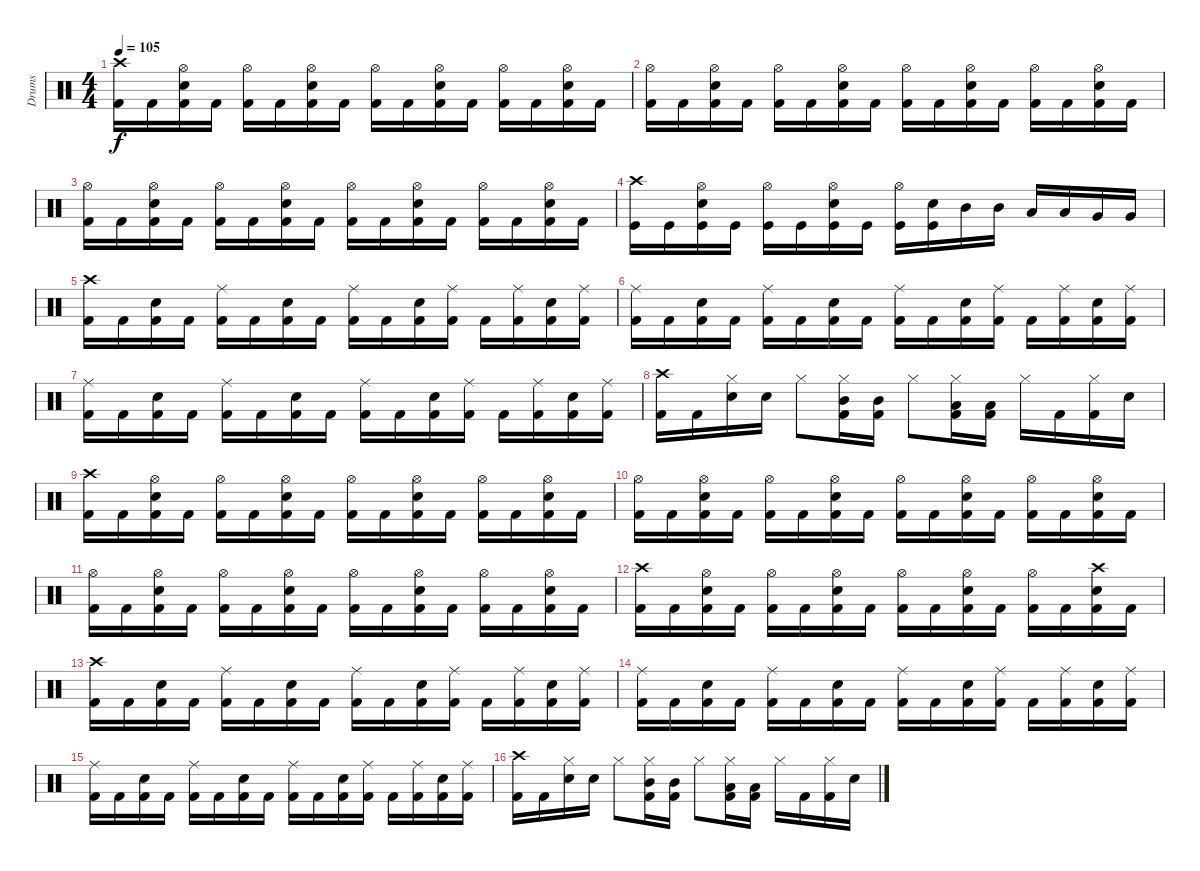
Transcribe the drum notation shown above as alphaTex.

\track ("Drums" "Drums") {instrument percussion}
\staff {score}
\articulation defaults
\ts (4 4)
\tempo 105
\clef neutral
\ks c
("Crash high (hit)" "Kick (hit) 2").16{dy f} "Kick (hit) 2".16 ("Hi-Hat (open)" "Electric Snare (hit)" "Kick (hit) 2").16 "Kick (hit) 2".16 ("Hi-Hat (open)" "Kick (hit) 2").16 "Kick (hit) 2".16 ("Hi-Hat (open)" "Electric Snare (hit)" "Kick (hit) 2").16 "Kick (hit) 2".16 ("Hi-Hat (open)" "Kick (hit) 2").16 "Kick (hit) 2".16 ("Hi-Hat (open)" "Electric Snare (hit)" "Kick (hit) 2").16 "Kick (hit) 2".16 ("Hi-Hat (open)" "Kick (hit) 2").16 "Kick (hit) 2".16 ("Hi-Hat (open)" "Electric Snare (hit)" "Kick (hit) 2").16 "Kick (hit) 2".16 |
("Hi-Hat (open)" "Kick (hit) 2").16 "Kick (hit) 2".16 ("Hi-Hat (open)" "Electric Snare (hit)" "Kick (hit) 2").16 "Kick (hit) 2".16 ("Hi-Hat (open)" "Kick (hit) 2").16 "Kick (hit) 2".16 ("Hi-Hat (open)" "Electric Snare (hit)" "Kick (hit) 2").16 "Kick (hit) 2".16 ("Hi-Hat (open)" "Kick (hit) 2").16 "Kick (hit) 2".16 ("Hi-Hat (open)" "Electric Snare (hit)" "Kick (hit) 2").16 "Kick (hit) 2".16 ("Hi-Hat (open)" "Kick (hit) 2").16 "Kick (hit) 2".16 ("Hi-Hat (open)" "Electric Snare (hit)" "Kick (hit) 2").16 "Kick (hit) 2".16 |
("Hi-Hat (open)" "Kick (hit) 2").16 "Kick (hit) 2".16 ("Hi-Hat (open)" "Electric Snare (hit)" "Kick (hit) 2").16 "Kick (hit) 2".16 ("Hi-Hat (open)" "Kick (hit) 2").16 "Kick (hit) 2".16 ("Hi-Hat (open)" "Electric Snare (hit)" "Kick (hit) 2").16 "Kick (hit) 2".16 ("Hi-Hat (open)" "Kick (hit) 2").16 "Kick (hit) 2".16 ("Hi-Hat (open)" "Electric Snare (hit)" "Kick (hit) 2").16 "Kick (hit) 2".16 ("Hi-Hat (open)" "Kick (hit) 2").16 "Kick (hit) 2".16 ("Hi-Hat (open)" "Electric Snare (hit)" "Kick (hit) 2").16 "Kick (hit) 2".16 |
("Crash high (hit)" "Kick (hit)").16 "Kick (hit)".16 ("Hi-Hat (open)" "Electric Snare (hit)" "Kick (hit)").16 "Kick (hit)".16 ("Hi-Hat (open)" "Kick (hit)").16 "Kick (hit)".16 ("Hi-Hat (open)" "Electric Snare (hit)" "Kick (hit)").16 "Kick (hit)".16 ("Hi-Hat (open)" "Kick (hit)").16 ("Electric Snare (hit)" "Kick (hit)").16 "Mid Tom (hit)".16 "Mid Tom (hit)".16 "Low Tom (hit)".16 "Low Tom (hit)".16 "Very Low Tom (hit)".16 "Very Low Tom (hit)".16 |
("Crash high (hit)" "Kick (hit) 2").16 "Kick (hit) 2".16 ("Electric Snare (hit)" "Kick (hit) 2").16 "Kick (hit) 2".16 ("Ride (middle)" "Kick (hit) 2").16 "Kick (hit) 2".16 ("Electric Snare (hit)" "Kick (hit) 2").16 "Kick (hit) 2".16 ("Ride (middle)" "Kick (hit) 2").16 "Kick (hit) 2".16 ("Electric Snare (hit)" "Kick (hit) 2").16 ("Ride (middle)" "Kick (hit) 2").16 "Kick (hit) 2".16 ("Ride (middle)" "Kick (hit) 2").16 ("Electric Snare (hit)" "Kick (hit) 2").16 ("Ride (middle)" "Kick (hit) 2").16 |
("Ride (middle)" "Kick (hit) 2").16 "Kick (hit) 2".16 ("Electric Snare (hit)" "Kick (hit) 2").16 "Kick (hit) 2".16 ("Ride (middle)" "Kick (hit) 2").16 "Kick (hit) 2".16 ("Electric Snare (hit)" "Kick (hit) 2").16 "Kick (hit) 2".16 ("Ride (middle)" "Kick (hit) 2").16 "Kick (hit) 2".16 ("Electric Snare (hit)" "Kick (hit) 2").16 ("Ride (middle)" "Kick (hit) 2").16 "Kick (hit) 2".16 ("Ride (middle)" "Kick (hit) 2").16 ("Electric Snare (hit)" "Kick (hit) 2").16 ("Ride (middle)" "Kick (hit) 2").16 |
("Ride (middle)" "Kick (hit) 2").16 "Kick (hit) 2".16 ("Electric Snare (hit)" "Kick (hit) 2").16 "Kick (hit) 2".16 ("Ride (middle)" "Kick (hit) 2").16 "Kick (hit) 2".16 ("Electric Snare (hit)" "Kick (hit) 2").16 "Kick (hit) 2".16 ("Ride (middle)" "Kick (hit) 2").16 "Kick (hit) 2".16 ("Electric Snare (hit)" "Kick (hit) 2").16 ("Ride (middle)" "Kick (hit) 2").16 "Kick (hit) 2".16 ("Ride (middle)" "Kick (hit) 2").16 ("Electric Snare (hit)" "Kick (hit) 2").16 ("Ride (middle)" "Kick (hit) 2").16 |
("Crash high (hit)" "Kick (hit) 2").16 "Kick (hit) 2".16 ("Hi-Hat (closed)" "Electric Snare (hit)").16 "Electric Snare (hit)".16 "Hi-Hat (closed)".8 ("Hi-Hat (closed)" "Mid Tom (hit)" "Kick (hit) 2").16 ("Mid Tom (hit)" "Kick (hit) 2").16 "Hi-Hat (closed)".8 ("Hi-Hat (closed)" "Low Tom (hit)" "Kick (hit) 2").16 ("Low Tom (hit)" "Kick (hit) 2").16 "Hi-Hat (closed)".16 "Kick (hit) 2".16 ("Hi-Hat (closed)" "Kick (hit) 2").16 "Electric Snare (hit)".16 |
("Crash high (hit)" "Kick (hit) 2").16 "Kick (hit) 2".16 ("Hi-Hat (open)" "Electric Snare (hit)" "Kick (hit) 2").16 "Kick (hit) 2".16 ("Hi-Hat (open)" "Kick (hit) 2").16 "Kick (hit) 2".16 ("Hi-Hat (open)" "Electric Snare (hit)" "Kick (hit) 2").16 "Kick (hit) 2".16 ("Hi-Hat (open)" "Kick (hit) 2").16 "Kick (hit) 2".16 ("Hi-Hat (open)" "Electric Snare (hit)" "Kick (hit) 2").16 "Kick (hit) 2".16 ("Hi-Hat (open)" "Kick (hit) 2").16 "Kick (hit) 2".16 ("Hi-Hat (open)" "Electric Snare (hit)" "Kick (hit) 2").16 "Kick (hit) 2".16 |
("Hi-Hat (open)" "Kick (hit) 2").16 "Kick (hit) 2".16 ("Hi-Hat (open)" "Electric Snare (hit)" "Kick (hit) 2").16 "Kick (hit) 2".16 ("Hi-Hat (open)" "Kick (hit) 2").16 "Kick (hit) 2".16 ("Hi-Hat (open)" "Electric Snare (hit)" "Kick (hit) 2").16 "Kick (hit) 2".16 ("Hi-Hat (open)" "Kick (hit) 2").16 "Kick (hit) 2".16 ("Hi-Hat (open)" "Electric Snare (hit)" "Kick (hit) 2").16 "Kick (hit) 2".16 ("Hi-Hat (open)" "Kick (hit) 2").16 "Kick (hit) 2".16 ("Hi-Hat (open)" "Electric Snare (hit)" "Kick (hit) 2").16 "Kick (hit) 2".16 |
("Hi-Hat (open)" "Kick (hit) 2").16 "Kick (hit) 2".16 ("Hi-Hat (open)" "Electric Snare (hit)" "Kick (hit) 2").16 "Kick (hit) 2".16 ("Hi-Hat (open)" "Kick (hit) 2").16 "Kick (hit) 2".16 ("Hi-Hat (open)" "Electric Snare (hit)" "Kick (hit) 2").16 "Kick (hit) 2".16 ("Hi-Hat (open)" "Kick (hit) 2").16 "Kick (hit) 2".16 ("Hi-Hat (open)" "Electric Snare (hit)" "Kick (hit) 2").16 "Kick (hit) 2".16 ("Hi-Hat (open)" "Kick (hit) 2").16 "Kick (hit) 2".16 ("Hi-Hat (open)" "Electric Snare (hit)" "Kick (hit) 2").16 "Kick (hit) 2".16 |
("Crash high (hit)" "Kick (hit) 2").16 "Kick (hit) 2".16 ("Hi-Hat (open)" "Electric Snare (hit)" "Kick (hit) 2").16 "Kick (hit) 2".16 ("Hi-Hat (open)" "Kick (hit) 2").16 "Kick (hit) 2".16 ("Hi-Hat (open)" "Electric Snare (hit)" "Kick (hit) 2").16 "Kick (hit) 2".16 ("Hi-Hat (open)" "Kick (hit) 2").16 "Kick (hit) 2".16 ("Hi-Hat (open)" "Electric Snare (hit)" "Kick (hit) 2").16 "Kick (hit) 2".16 ("Hi-Hat (open)" "Kick (hit) 2").16 "Kick (hit) 2".16 ("Crash high (hit)" "Electric Snare (hit)" "Kick (hit) 2").16 "Kick (hit) 2".16 |
("Crash high (hit)" "Kick (hit) 2").16 "Kick (hit) 2".16 ("Electric Snare (hit)" "Kick (hit) 2").16 "Kick (hit) 2".16 ("Ride (middle)" "Kick (hit) 2").16 "Kick (hit) 2".16 ("Electric Snare (hit)" "Kick (hit) 2").16 "Kick (hit) 2".16 ("Ride (middle)" "Kick (hit) 2").16 "Kick (hit) 2".16 ("Electric Snare (hit)" "Kick (hit) 2").16 ("Ride (middle)" "Kick (hit) 2").16 "Kick (hit) 2".16 ("Ride (middle)" "Kick (hit) 2").16 ("Electric Snare (hit)" "Kick (hit) 2").16 ("Ride (middle)" "Kick (hit) 2").16 |
("Ride (middle)" "Kick (hit) 2").16 "Kick (hit) 2".16 ("Electric Snare (hit)" "Kick (hit) 2").16 "Kick (hit) 2".16 ("Ride (middle)" "Kick (hit) 2").16 "Kick (hit) 2".16 ("Electric Snare (hit)" "Kick (hit) 2").16 "Kick (hit) 2".16 ("Ride (middle)" "Kick (hit) 2").16 "Kick (hit) 2".16 ("Electric Snare (hit)" "Kick (hit) 2").16 ("Ride (middle)" "Kick (hit) 2").16 "Kick (hit) 2".16 ("Ride (middle)" "Kick (hit) 2").16 ("Electric Snare (hit)" "Kick (hit) 2").16 ("Ride (middle)" "Kick (hit) 2").16 |
("Ride (middle)" "Kick (hit) 2").16 "Kick (hit) 2".16 ("Electric Snare (hit)" "Kick (hit) 2").16 "Kick (hit) 2".16 ("Ride (middle)" "Kick (hit) 2").16 "Kick (hit) 2".16 ("Electric Snare (hit)" "Kick (hit) 2").16 "Kick (hit) 2".16 ("Ride (middle)" "Kick (hit) 2").16 "Kick (hit) 2".16 ("Electric Snare (hit)" "Kick (hit) 2").16 ("Ride (middle)" "Kick (hit) 2").16 "Kick (hit) 2".16 ("Ride (middle)" "Kick (hit) 2").16 ("Electric Snare (hit)" "Kick (hit) 2").16 ("Ride (middle)" "Kick (hit) 2").16 |
("Crash high (hit)" "Kick (hit) 2").16 "Kick (hit) 2".16 ("Hi-Hat (closed)" "Electric Snare (hit)").16 "Electric Snare (hit)".16 "Hi-Hat (closed)".8 ("Hi-Hat (closed)" "Mid Tom (hit)" "Kick (hit) 2").16 ("Mid Tom (hit)" "Kick (hit) 2").16 "Hi-Hat (closed)".8 ("Hi-Hat (closed)" "Low Tom (hit)" "Kick (hit) 2").16 ("Low Tom (hit)" "Kick (hit) 2").16 "Hi-Hat (closed)".16 "Kick (hit) 2".16 ("Hi-Hat (closed)" "Kick (hit) 2").16 "Electric Snare (hit)".16
